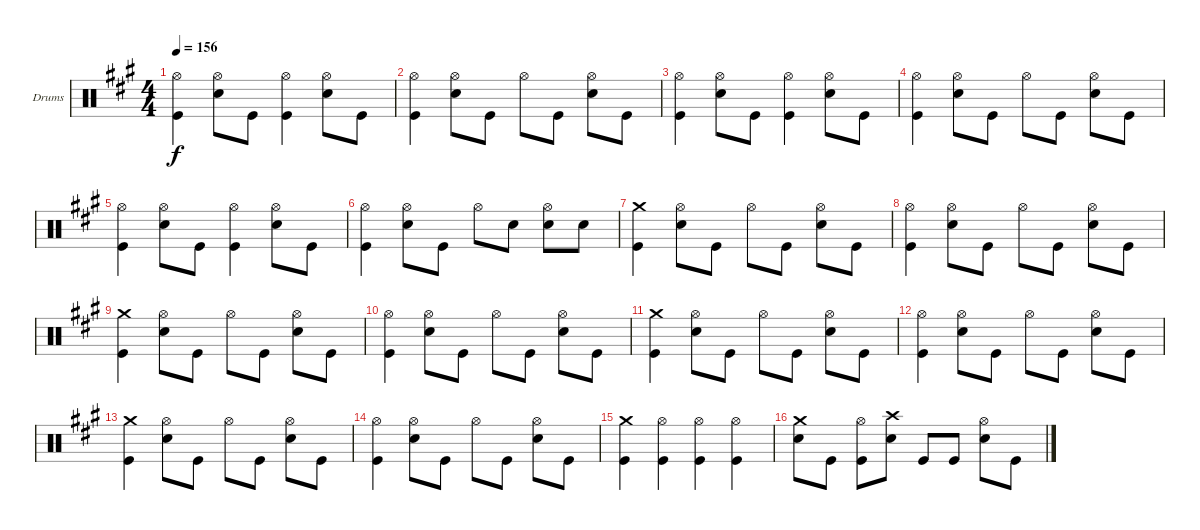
\defaultSystemsLayout 4
\bracketExtendMode groupsimilarinstruments
\firstSystemTrackNameOrientation horizontal
\otherSystemsTrackNameOrientation horizontal
\track ("Drumkit" "Drums") {instrument percussion}
\staff {score}
\articulation defaults
\ts (4 4)
\tempo 156
\clef neutral
\scale
0.973518
\ks a
("Hi-Hat (open)" "Kick (hit)").4{dy f} ("Hi-Hat (open)" "Snare (hit) 2").8 "Kick (hit)".8 ("Hi-Hat (open)" "Kick (hit)").4 ("Hi-Hat (open)" "Snare (hit) 2").8 "Kick (hit)".8 |
\scale
1.05296 ("Hi-Hat (open)" "Kick (hit)").4 ("Hi-Hat (open)" "Snare (hit) 2").8 "Kick (hit)".8 "Hi-Hat (open)".8 "Kick (hit)".8 ("Hi-Hat (open)" "Snare (hit) 2").8 "Kick (hit)".8 |
\scale
0.973518 ("Kick (hit)" "Hi-Hat (open)").4 ("Snare (hit) 2" "Hi-Hat (open)").8 "Kick (hit)".8 ("Kick (hit)" "Hi-Hat (open)").4 ("Snare (hit) 2" "Hi-Hat (open)").8 "Kick (hit)".8 |
\scale
0.973518 ("Kick (hit)" "Hi-Hat (open)").4 ("Snare (hit) 2" "Hi-Hat (open)").8 "Kick (hit)".8 "Hi-Hat (open)".8 "Kick (hit)".8 ("Snare (hit) 2" "Hi-Hat (open)").8 "Kick (hit)".8 |
\scale
1.05296 ("Kick (hit)" "Hi-Hat (open)").4 ("Snare (hit) 2" "Hi-Hat (open)").8 "Kick (hit)".8 ("Kick (hit)" "Hi-Hat (open)").4 ("Snare (hit) 2" "Hi-Hat (open)").8 "Kick (hit)".8 |
\scale
0.973518 ("Kick (hit)" "Hi-Hat (open)").4 ("Snare (hit) 2" "Hi-Hat (open)").8 "Kick (hit)".8 "Hi-Hat (open)".8 "Snare (hit) 2".8 ("Snare (hit) 2" "Hi-Hat (open)").8 "Snare (hit) 2".8 |
\scale
0.973518 ("Kick (hit)" "Crash medium (hit)").4 ("Snare (hit) 2" "Hi-Hat (open)").8 "Kick (hit)".8 "Hi-Hat (open)".8 "Kick (hit)".8 ("Snare (hit) 2" "Hi-Hat (open)").8 "Kick (hit)".8 |
\scale
1.05296 ("Kick (hit)" "Hi-Hat (open)").4 ("Snare (hit) 2" "Hi-Hat (open)").8 "Kick (hit)".8 "Hi-Hat (open)".8 "Kick (hit)".8 ("Snare (hit) 2" "Hi-Hat (open)").8 "Kick (hit)".8 |
\scale
0.973518 ("Kick (hit)" "Crash medium (hit)").4 ("Snare (hit) 2" "Hi-Hat (open)").8 "Kick (hit)".8 "Hi-Hat (open)".8 "Kick (hit)".8 ("Snare (hit) 2" "Hi-Hat (open)").8 "Kick (hit)".8 |
\scale
0.973518 ("Kick (hit)" "Hi-Hat (open)").4 ("Snare (hit) 2" "Hi-Hat (open)").8 "Kick (hit)".8 "Hi-Hat (open)".8 "Kick (hit)".8 ("Snare (hit) 2" "Hi-Hat (open)").8 "Kick (hit)".8 |
\scale
1.05296 ("Kick (hit)" "Crash medium (hit)").4 ("Snare (hit) 2" "Hi-Hat (open)").8 "Kick (hit)".8 "Hi-Hat (open)".8 "Kick (hit)".8 ("Snare (hit) 2" "Hi-Hat (open)").8 "Kick (hit)".8 |
\scale
0.973518 ("Kick (hit)" "Hi-Hat (open)").4 ("Snare (hit) 2" "Hi-Hat (open)").8 "Kick (hit)".8 "Hi-Hat (open)".8 "Kick (hit)".8 ("Snare (hit) 2" "Hi-Hat (open)").8 "Kick (hit)".8 |
\scale
0.973518 ("Kick (hit)" "Crash medium (hit)").4 ("Snare (hit) 2" "Hi-Hat (open)").8 "Kick (hit)".8 "Hi-Hat (open)".8 "Kick (hit)".8 ("Snare (hit) 2" "Hi-Hat (open)").8 "Kick (hit)".8 |
\scale
1.05296 ("Kick (hit)" "Hi-Hat (open)").4 ("Snare (hit) 2" "Hi-Hat (open)").8 "Kick (hit)".8 "Hi-Hat (open)".8 "Kick (hit)".8 ("Snare (hit) 2" "Hi-Hat (open)").8 "Kick (hit)".8 |
\scale
0.973518 ("Kick (hit)" "Crash medium (hit)").4 ("Kick (hit)" "Hi-Hat (open)").4 ("Kick (hit)" "Hi-Hat (open)").4 ("Kick (hit)" "Hi-Hat (open)").4 |
\scale
0.973518 ("Snare (hit) 2" "Crash medium (hit)").8 "Kick (hit)".8 ("Kick (hit)" "Hi-Hat (open)").8 ("Snare (hit) 2" "Crash high (hit)").8 "Kick (hit)".8 "Kick (hit)".8 ("Snare (hit) 2" "Hi-Hat (open)").8 "Kick (hit)".8
